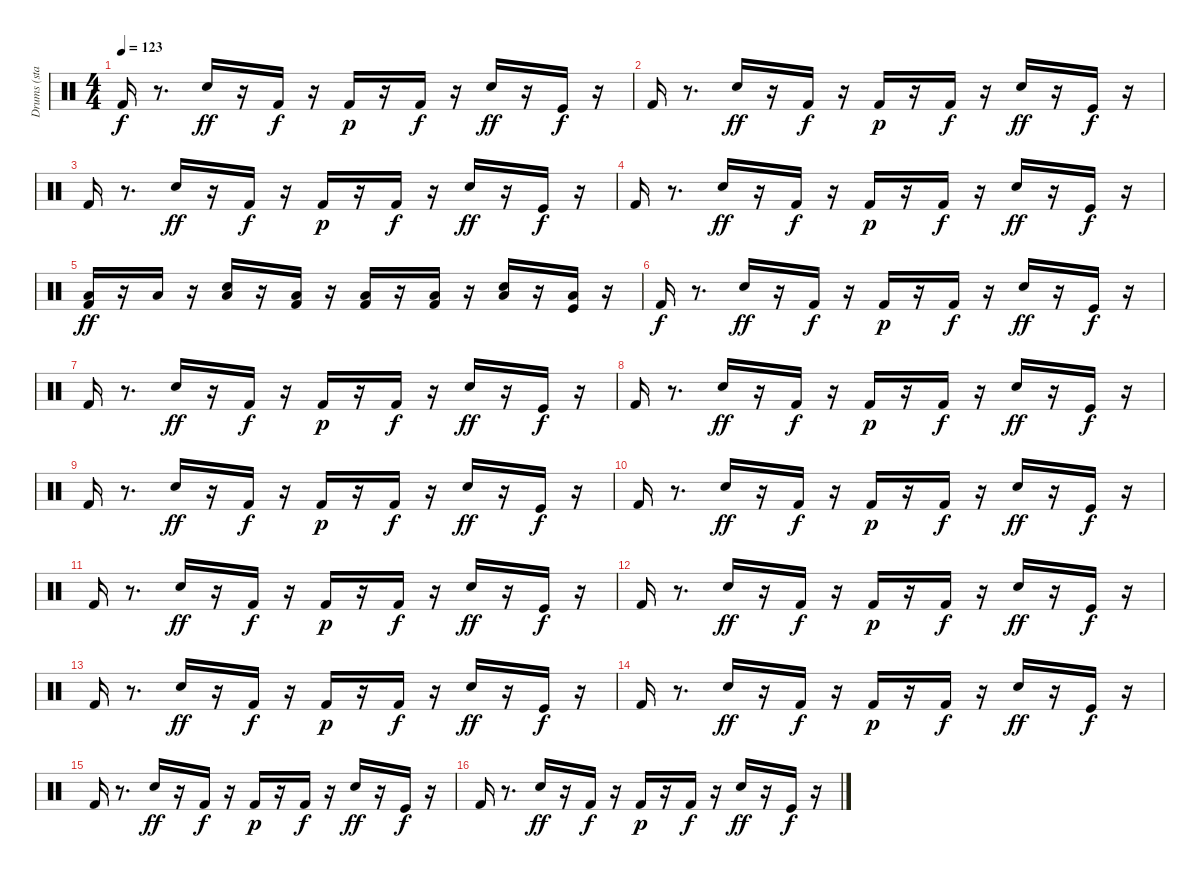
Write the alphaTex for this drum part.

\track ("Drums (standard set)" "Drums (sta") {instrument percussion}
\staff {score}
\articulation defaults
\ts (4 4)
\tempo 123
\clef neutral
\ks c "Kick (hit) 2".16{dy f}
r.8{d} "Snare (hit) 2".16{dy ff} r.16 "Kick (hit) 2".16{dy f} r.16 "Kick (hit) 2".16{dy p} r.16 "Kick (hit) 2".16{dy f} r.16 "Snare (hit) 2".16{dy ff} r.16 "Kick (hit)".16{dy f} r.16 |
"Kick (hit) 2".16 r.8{d} "Snare (hit) 2".16{dy ff} r.16 "Kick (hit) 2".16{dy f} r.16 "Kick (hit) 2".16{dy p} r.16 "Kick (hit) 2".16{dy f} r.16 "Snare (hit) 2".16{dy ff} r.16 "Kick (hit)".16{dy f} r.16 |
"Kick (hit) 2".16 r.8{d} "Snare (hit) 2".16{dy ff} r.16 "Kick (hit) 2".16{dy f} r.16 "Kick (hit) 2".16{dy p} r.16 "Kick (hit) 2".16{dy f} r.16 "Snare (hit) 2".16{dy ff} r.16 "Kick (hit)".16{dy f} r.16 |
"Kick (hit) 2".16 r.8{d} "Snare (hit) 2".16{dy ff} r.16 "Kick (hit) 2".16{dy f} r.16 "Kick (hit) 2".16{dy p} r.16 "Kick (hit) 2".16{dy f} r.16 "Snare (hit) 2".16{dy ff} r.16 "Kick (hit)".16{dy f} r.16 |
("Kick (hit) 2" "Low Tom (hit)").16{dy ff} r.16 "Low Tom (hit)".16 r.16 ("Snare (hit) 2" "Low Tom (hit)").16 r.16 ("Kick (hit) 2" "Low Tom (hit)").16 r.16 ("Kick (hit) 2" "Low Tom (hit)").16 r.16 ("Kick (hit) 2" "Low Tom (hit)").16 r.16 ("Snare (hit) 2" "Low Tom (hit)").16 r.16 ("Kick (hit)" "Low Tom (hit)").16 r.16 |
"Kick (hit) 2".16{dy f} r.8{d} "Snare (hit) 2".16{dy ff} r.16 "Kick (hit) 2".16{dy f} r.16 "Kick (hit) 2".16{dy p} r.16 "Kick (hit) 2".16{dy f} r.16 "Snare (hit) 2".16{dy ff} r.16 "Kick (hit)".16{dy f} r.16 |
"Kick (hit) 2".16 r.8{d} "Snare (hit) 2".16{dy ff} r.16 "Kick (hit) 2".16{dy f} r.16 "Kick (hit) 2".16{dy p} r.16 "Kick (hit) 2".16{dy f} r.16 "Snare (hit) 2".16{dy ff} r.16 "Kick (hit)".16{dy f} r.16 |
"Kick (hit) 2".16 r.8{d} "Snare (hit) 2".16{dy ff} r.16 "Kick (hit) 2".16{dy f} r.16 "Kick (hit) 2".16{dy p} r.16 "Kick (hit) 2".16{dy f} r.16 "Snare (hit) 2".16{dy ff} r.16 "Kick (hit)".16{dy f} r.16 |
"Kick (hit) 2".16 r.8{d} "Snare (hit) 2".16{dy ff} r.16 "Kick (hit) 2".16{dy f} r.16 "Kick (hit) 2".16{dy p} r.16 "Kick (hit) 2".16{dy f} r.16 "Snare (hit) 2".16{dy ff} r.16 "Kick (hit)".16{dy f} r.16 |
"Kick (hit) 2".16 r.8{d} "Snare (hit) 2".16{dy ff} r.16 "Kick (hit) 2".16{dy f} r.16 "Kick (hit) 2".16{dy p} r.16 "Kick (hit) 2".16{dy f} r.16 "Snare (hit) 2".16{dy ff} r.16 "Kick (hit)".16{dy f} r.16 |
"Kick (hit) 2".16 r.8{d} "Snare (hit) 2".16{dy ff} r.16 "Kick (hit) 2".16{dy f} r.16 "Kick (hit) 2".16{dy p} r.16 "Kick (hit) 2".16{dy f} r.16 "Snare (hit) 2".16{dy ff} r.16 "Kick (hit)".16{dy f} r.16 |
"Kick (hit) 2".16 r.8{d} "Snare (hit) 2".16{dy ff} r.16 "Kick (hit) 2".16{dy f} r.16 "Kick (hit) 2".16{dy p} r.16 "Kick (hit) 2".16{dy f} r.16 "Snare (hit) 2".16{dy ff} r.16 "Kick (hit)".16{dy f} r.16 |
"Kick (hit) 2".16 r.8{d} "Snare (hit) 2".16{dy ff} r.16 "Kick (hit) 2".16{dy f} r.16 "Kick (hit) 2".16{dy p} r.16 "Kick (hit) 2".16{dy f} r.16 "Snare (hit) 2".16{dy ff} r.16 "Kick (hit)".16{dy f} r.16 |
"Kick (hit) 2".16 r.8{d} "Snare (hit) 2".16{dy ff} r.16 "Kick (hit) 2".16{dy f} r.16 "Kick (hit) 2".16{dy p} r.16 "Kick (hit) 2".16{dy f} r.16 "Snare (hit) 2".16{dy ff} r.16 "Kick (hit)".16{dy f} r.16 |
"Kick (hit) 2".16 r.8{d} "Snare (hit) 2".16{dy ff} r.16 "Kick (hit) 2".16{dy f} r.16 "Kick (hit) 2".16{dy p} r.16 "Kick (hit) 2".16{dy f} r.16 "Snare (hit) 2".16{dy ff} r.16 "Kick (hit)".16{dy f} r.16 |
"Kick (hit) 2".16 r.8{d} "Snare (hit) 2".16{dy ff} r.16 "Kick (hit) 2".16{dy f} r.16 "Kick (hit) 2".16{dy p} r.16 "Kick (hit) 2".16{dy f} r.16 "Snare (hit) 2".16{dy ff} r.16 "Kick (hit)".16{dy f} r.16
